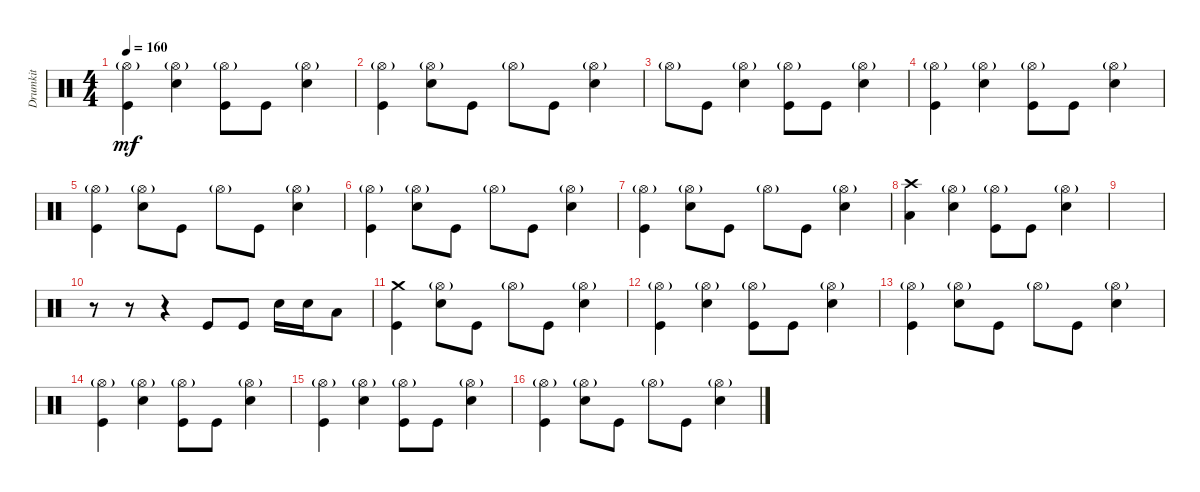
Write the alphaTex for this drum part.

\track ("Drumkit" "Drumkit") {instrument percussion}
\staff {score}
\articulation defaults
\ts (4 4)
\tempo 160
\clef neutral
\ks c
("Kick (hit)" "Hi-Hat (open)"{g}).4{dy mf} ("Hi-Hat (open)"{g} "Snare (hit) 2").4 ("Kick (hit)" "Hi-Hat (open)"{g}).8 "Kick (hit)".8 ("Snare (hit) 2" "Hi-Hat (open)"{g}).4 |
("Kick (hit)" "Hi-Hat (open)"{g}).4 ("Snare (hit) 2" "Hi-Hat (open)"{g}).8 "Kick (hit)".8 "Hi-Hat (open)"{g}.8 "Kick (hit)".8 ("Snare (hit) 2" "Hi-Hat (open)"{g}).4 |
"Hi-Hat (open)"{g}.8 "Kick (hit)".8 ("Snare (hit) 2" "Hi-Hat (open)"{g}).4 ("Kick (hit)" "Hi-Hat (open)"{g}).8 "Kick (hit)".8 ("Snare (hit) 2" "Hi-Hat (open)"{g}).4 |
("Kick (hit)" "Hi-Hat (open)"{g}).4 ("Hi-Hat (open)"{g} "Snare (hit) 2").4 ("Kick (hit)" "Hi-Hat (open)"{g}).8 "Kick (hit)".8 ("Snare (hit) 2" "Hi-Hat (open)"{g}).4 |
("Kick (hit)" "Hi-Hat (open)"{g}).4 ("Snare (hit) 2" "Hi-Hat (open)"{g}).8 "Kick (hit)".8 "Hi-Hat (open)"{g}.8 "Kick (hit)".8 ("Snare (hit) 2" "Hi-Hat (open)"{g}).4 |
("Kick (hit)" "Hi-Hat (open)"{g}).4 ("Snare (hit) 2" "Hi-Hat (open)"{g}).8 "Kick (hit)".8 "Hi-Hat (open)"{g}.8 "Kick (hit)".8 ("Snare (hit) 2" "Hi-Hat (open)"{g}).4 |
("Kick (hit)" "Hi-Hat (open)"{g}).4 ("Snare (hit) 2" "Hi-Hat (open)"{g}).8 "Kick (hit)".8 "Hi-Hat (open)"{g}.8 "Kick (hit)".8 ("Snare (hit) 2" "Hi-Hat (open)"{g}).4 |
("Low Floor Tom (hit)" "Crash high (hit)").4 ("Hi-Hat (open)"{g} "Snare (hit) 2").4 ("Kick (hit)" "Hi-Hat (open)"{g}).8 "Kick (hit)".8 ("Snare (hit) 2" "Hi-Hat (open)"{g}).4 |
|
r.8 r.8 r.4 "Kick (hit)".8 "Kick (hit)".8 "Snare (hit) 2".16 "Snare (hit) 2".16 "Low Tom (hit)".8 |
("Kick (hit)" "Crash medium (hit)").4 ("Snare (hit) 2" "Hi-Hat (open)"{g}).8 "Kick (hit)".8 "Hi-Hat (open)"{g}.8 "Kick (hit)".8 ("Snare (hit) 2" "Hi-Hat (open)"{g}).4 |
("Kick (hit)" "Hi-Hat (open)"{g}).4 ("Hi-Hat (open)"{g} "Snare (hit) 2").4 ("Kick (hit)" "Hi-Hat (open)"{g}).8 "Kick (hit)".8 ("Snare (hit) 2" "Hi-Hat (open)"{g}).4 |
("Kick (hit)" "Hi-Hat (open)"{g}).4 ("Snare (hit) 2" "Hi-Hat (open)"{g}).8 "Kick (hit)".8 "Hi-Hat (open)"{g}.8 "Kick (hit)".8 ("Snare (hit) 2" "Hi-Hat (open)"{g}).4 |
("Kick (hit)" "Hi-Hat (open)"{g}).4 ("Hi-Hat (open)"{g} "Snare (hit) 2").4 ("Kick (hit)" "Hi-Hat (open)"{g}).8 "Kick (hit)".8 ("Snare (hit) 2" "Hi-Hat (open)"{g}).4 |
("Kick (hit)" "Hi-Hat (open)"{g}).4 ("Hi-Hat (open)"{g} "Snare (hit) 2").4 ("Kick (hit)" "Hi-Hat (open)"{g}).8 "Kick (hit)".8 ("Snare (hit) 2" "Hi-Hat (open)"{g}).4 |
("Kick (hit)" "Hi-Hat (open)"{g}).4 ("Snare (hit) 2" "Hi-Hat (open)"{g}).8 "Kick (hit)".8 "Hi-Hat (open)"{g}.8 "Kick (hit)".8 ("Snare (hit) 2" "Hi-Hat (open)"{g}).4
